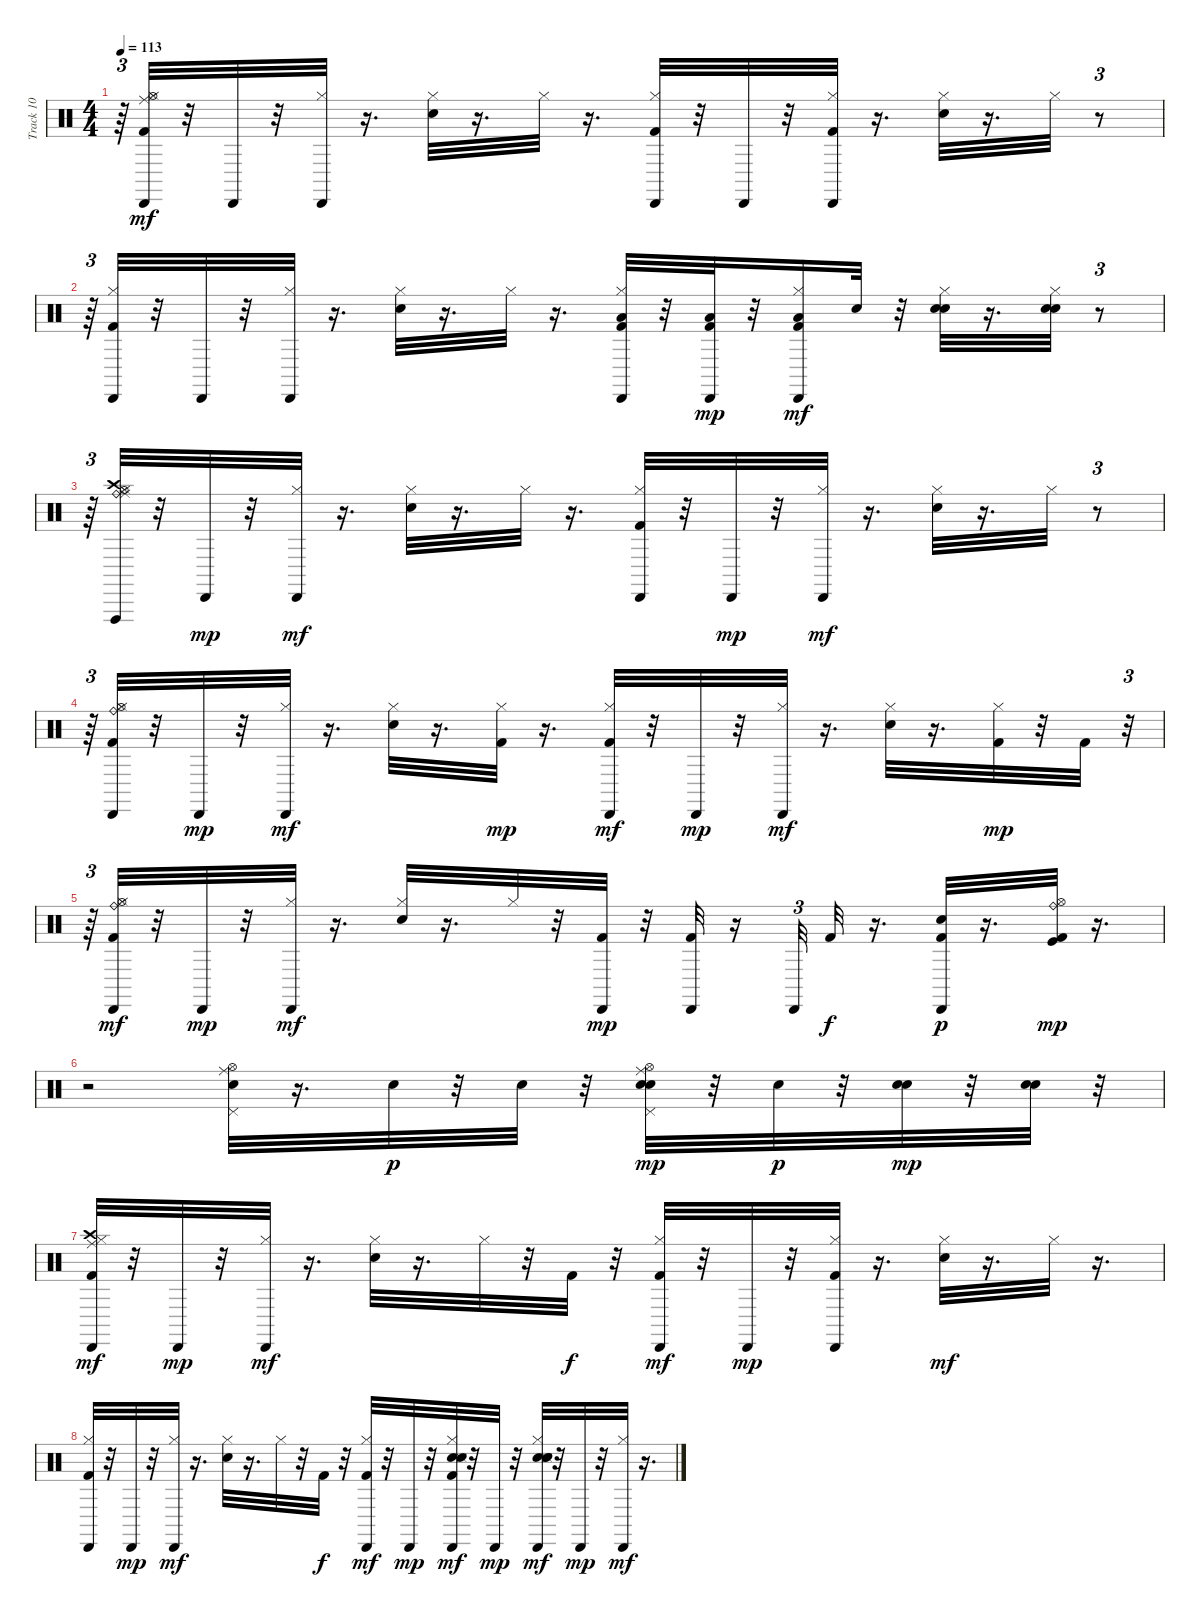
\track ("Track 10" "Track 10") {instrument percussion}
\staff {score}
\articulation defaults
\ts (4 4)
\tempo 113
\clef neutral
\ks c
r.64{tu (3 2) dy f} ("Hi-Hat (open)" "Ride (middle)" "Cabasa (hit)" "Hi-Hat (closed)" "Kick (hit) 2").32{dy mf} r.32 "Cabasa (hit)".32 r.32 ("Hi-Hat (closed)" "Cabasa (hit)").32 r.16{d} ("Hi-Hat (closed)" "Snare (hit) 2").32 r.16{d} "Hi-Hat (closed)".32 r.16{d} ("Cabasa (hit)" "Hi-Hat (closed)" "Kick (hit) 2").32 r.32 "Cabasa (hit)".32 r.32 ("Cabasa (hit)" "Hi-Hat (closed)" "Kick (hit) 2").32 r.16{d} ("Hi-Hat (closed)" "Snare (hit) 2").32 r.16{d} "Hi-Hat (closed)".32 r.8{tu (3 2)} |
r.64{tu (3 2)} ("Hi-Hat (closed)" "Kick (hit) 2" "Cabasa (hit)").32 r.32 "Cabasa (hit)".32 r.32 ("Hi-Hat (closed)" "Cabasa (hit)").32 r.16{d} ("Hi-Hat (closed)" "Snare (hit) 2").32 r.16{d} "Hi-Hat (closed)".32 r.16{d} ("Low Tom (hit)" "Cabasa (hit)" "Hi-Hat (closed)" "Kick (hit) 2").32 r.32 ("Low Tom (hit)" "Cabasa (hit)" "Kick (hit) 2").32{dy mp} r.32 ("Low Tom (hit)" "Kick (hit) 2" "Cabasa (hit)" "Hi-Hat (closed)").16{dy mf} "Snare (hit) 2".32 r.32 ("Electric Snare (hit)" "Hi-Hat (closed)" "Snare (hit) 2").32 r.16{d} ("Electric Snare (hit)" "Hi-Hat (closed)" "Snare (hit) 2").32 r.8{tu (3 2)} |
r.64{tu (3 2)} ("Hi-Hat (open)" "Ride (bell)" "Vibraslap (hit)" "Crash high (hit)" "Ride (middle)" "Hi-Hat (closed)").32 r.32 "Cabasa (hit)".32{dy mp} r.32 ("Cabasa (hit)" "Hi-Hat (closed)").32{dy mf} r.16{d} ("Snare (hit) 2" "Hi-Hat (closed)").32 r.16{d} "Hi-Hat (closed)".32 r.16{d} ("Cabasa (hit)" "Hi-Hat (closed)" "Kick (hit) 2").32 r.32 "Cabasa (hit)".32{dy mp} r.32 ("Cabasa (hit)" "Hi-Hat (closed)").32{dy mf} r.16{d} ("Hi-Hat (closed)" "Snare (hit) 2").32 r.16{d} "Hi-Hat (closed)".32 r.8{tu (3 2)} |
r.64{tu (3 2)} ("Hi-Hat (open)" "Ride (bell)" "Cabasa (hit)" "Hi-Hat (closed)" "Kick (hit) 2").32 r.32 "Cabasa (hit)".32{dy mp} r.32 ("Cabasa (hit)" "Hi-Hat (closed)").32{dy mf} r.16{d} ("Hi-Hat (closed)" "Snare (hit) 2").32 r.16{d} ("Hi-Hat (closed)" "Kick (hit) 2").32{dy mp} r.16{d} ("Cabasa (hit)" "Hi-Hat (closed)" "Kick (hit) 2").32{dy mf} r.32 "Cabasa (hit)".32{dy mp} r.32 ("Cabasa (hit)" "Hi-Hat (closed)").32{dy mf} r.16{d} ("Hi-Hat (closed)" "Snare (hit) 2").32 r.16{d} ("Hi-Hat (closed)" "Kick (hit) 2").32{dy mp} r.32 "Kick (hit) 2".32 r.32{tu (3 2)} |
r.64{tu (3 2)} ("Hi-Hat (open)" "Ride (bell)" "Cabasa (hit)" "Hi-Hat (closed)" "Kick (hit) 2").32{dy mf} r.32 "Cabasa (hit)".32{dy mp} r.32 ("Cabasa (hit)" "Hi-Hat (closed)").32{dy mf} r.16{d} ("Hi-Hat (closed)" "Snare (hit) 2").32 r.16{d} "Hi-Hat (closed)".32 r.32 ("Kick (hit) 2" "Cabasa (hit)").32{dy mp} r.32 ("Kick (hit) 2" "Cabasa (hit)").32 r.16 "Cabasa (hit)".32{tu (3 2)} "Kick (hit) 2".32{dy f} r.16{d} ("Cabasa (hit)" "Kick (hit) 2" "Snare (hit) 2").32{dy p} r.16{d} ("Kick (hit)" "Kick (hit) 2" "Hi-Hat (open)" "Ride (bell)").32{dy mp} r.16{d} |
r.2 ("Snare (hit) 2" "Ride (middle)" "Pedal Hi-Hat (hit)" "Hi-Hat (open)").32 r.16{d} "Snare (hit) 2".32{dy p} r.32 "Snare (hit) 2".32 r.32 ("Electric Snare (hit)" "Ride (middle)" "Pedal Hi-Hat (hit)" "Snare (hit) 2" "Hi-Hat (open)").32{dy mp} r.32 "Snare (hit) 2".32{dy p} r.32 ("Electric Snare (hit)" "Snare (hit) 2").32{dy mp} r.32 ("Electric Snare (hit)" "Snare (hit) 2").32 r.32 |
("Cabasa (hit)" "Crash high (hit)" "Ride (middle)" "Hi-Hat (closed)" "Kick (hit) 2").32{dy mf} r.32 "Cabasa (hit)".32{dy mp} r.32 ("Cabasa (hit)" "Hi-Hat (closed)").32{dy mf} r.16{d} ("Hi-Hat (closed)" "Snare (hit) 2").32 r.16{d} "Hi-Hat (closed)".32 r.32 "Kick (hit) 2".32{dy f} r.32 ("Cabasa (hit)" "Hi-Hat (closed)" "Kick (hit) 2").32{dy mf} r.32 "Cabasa (hit)".32{dy mp} r.32 ("Hi-Hat (closed)" "Kick (hit) 2" "Cabasa (hit)").32 r.16{d} ("Hi-Hat (closed)" "Snare (hit) 2").32{dy mf} r.16{d} "Hi-Hat (closed)".32 r.16{d} |
("Cabasa (hit)" "Hi-Hat (closed)" "Kick (hit) 2").32 r.32 "Cabasa (hit)".32{dy mp} r.32 ("Cabasa (hit)" "Hi-Hat (closed)").32{dy mf} r.16{d} ("Hi-Hat (closed)" "Snare (hit) 2").32 r.16{d} "Hi-Hat (closed)".32 r.32 "Kick (hit) 2".32{dy f} r.32 ("Cabasa (hit)" "Hi-Hat (closed)" "Kick (hit) 2").32{dy mf} r.32 "Cabasa (hit)".32{dy mp} r.32 ("Cabasa (hit)" "Hand Clap (hit)" "Snare (side stick) 3" "Hi-Hat (closed)" "Hand Clap (hit)" "Kick (hit) 2").32{dy mf} r.32 "Cabasa (hit)".32{dy mp} r.32 ("Cabasa (hit)" "Hand Clap (hit)" "Snare (side stick) 3" "Hi-Hat (closed)" "Hand Clap (hit)" "Snare (hit) 2").32{dy mf} r.32 "Cabasa (hit)".32{dy mp} r.32 ("Cabasa (hit)" "Hi-Hat (closed)").32{dy mf} r.16{d}
